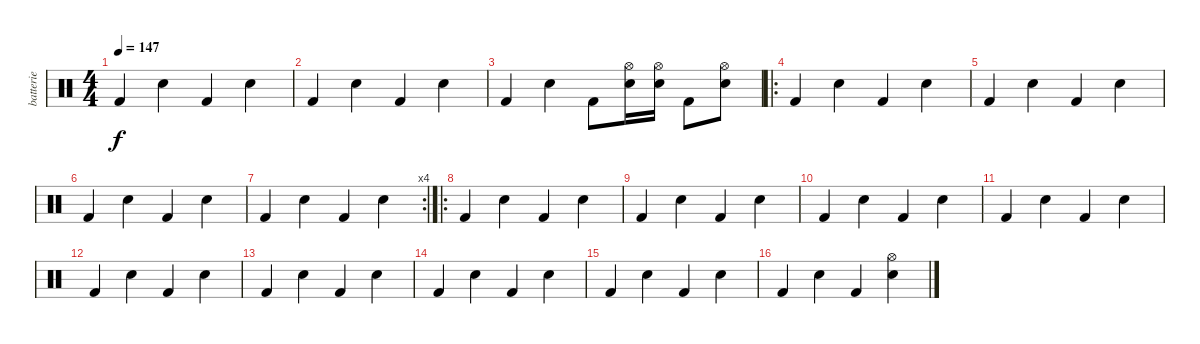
\track ("batterie" "batterie") {instrument percussion}
\staff {score}
\articulation defaults
\ts (4 4)
\tempo 147
\clef neutral
\ks c "Kick (hit) 2".4{dy f} "Snare (hit) 2".4 "Kick (hit) 2".4 "Snare (hit) 2".4
|
"Kick (hit) 2".4 "Snare (hit) 2".4 "Kick (hit) 2".4 "Snare (hit) 2".4 |
"Kick (hit) 2".4 "Snare (hit) 2".4 "Kick (hit) 2".8 ("Snare (hit) 2" "Hi-Hat (open)").16 ("Snare (hit) 2" "Hi-Hat (open)").16 "Kick (hit) 2".8 ("Snare (hit) 2" "Hi-Hat (open)").8 |
\ro "Kick (hit) 2".4 "Snare (hit) 2".4 "Kick (hit) 2".4 "Snare (hit) 2".4
|
"Kick (hit) 2".4 "Snare (hit) 2".4 "Kick (hit) 2".4 "Snare (hit) 2".4 |
"Kick (hit) 2".4 "Snare (hit) 2".4 "Kick (hit) 2".4 "Snare (hit) 2".4 |
\rc 4 "Kick (hit) 2".4 "Snare (hit) 2".4 "Kick (hit) 2".4 "Snare (hit) 2".4
|
\ro "Kick (hit) 2".4 "Snare (hit) 2".4 "Kick (hit) 2".4 "Snare (hit) 2".4
|
"Kick (hit) 2".4 "Snare (hit) 2".4 "Kick (hit) 2".4 "Snare (hit) 2".4 |
"Kick (hit) 2".4 "Snare (hit) 2".4 "Kick (hit) 2".4 "Snare (hit) 2".4 |
"Kick (hit) 2".4 "Snare (hit) 2".4 "Kick (hit) 2".4 "Snare (hit) 2".4 |
"Kick (hit) 2".4 "Snare (hit) 2".4 "Kick (hit) 2".4 "Snare (hit) 2".4 |
"Kick (hit) 2".4 "Snare (hit) 2".4 "Kick (hit) 2".4 "Snare (hit) 2".4 |
"Kick (hit) 2".4 "Snare (hit) 2".4 "Kick (hit) 2".4 "Snare (hit) 2".4 |
"Kick (hit) 2".4 "Snare (hit) 2".4 "Kick (hit) 2".4 "Snare (hit) 2".4 |
"Kick (hit) 2".4 "Snare (hit) 2".4 "Kick (hit) 2".4 ("Snare (hit) 2" "Hi-Hat (open)").4
